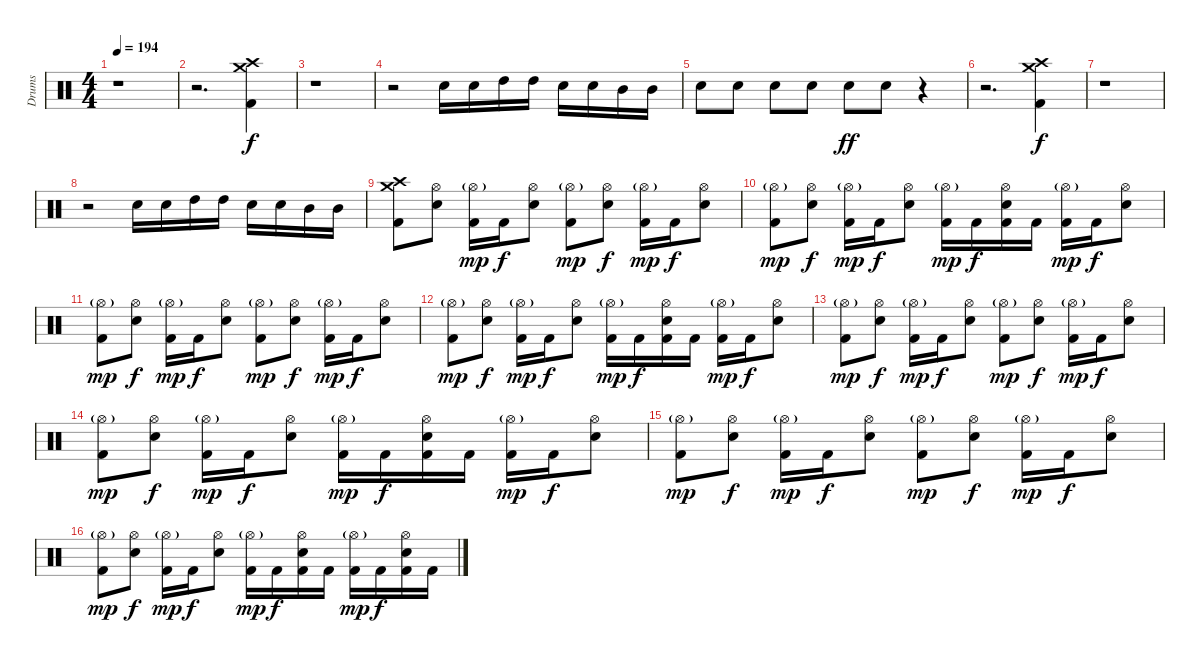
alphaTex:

\track ("Drums" "Drums") {instrument percussion}
\staff {score}
\articulation defaults
\ts (4 4)
\tempo 194
\clef neutral
\ks c
r.1{dy f} |
r.2{d} ("Crash high (hit)" "Crash medium (hit)" "Kick (hit) 2").4 |
r.1 |
r.2 "Electric Snare (hit)".16 "Electric Snare (hit)".16 "High Tom (hit)".16 "High Tom (hit)".16 "Electric Snare (hit)".16 "Electric Snare (hit)".16 "Mid Tom (hit)".16 "Mid Tom (hit)".16 |
"Electric Snare (hit)".8 "Electric Snare (hit)".8 "Electric Snare (hit)".8 "Electric Snare (hit)".8 "Electric Snare (hit)".8{dy ff} "Electric Snare (hit)".8 r.4 |
r.2{d} ("Crash high (hit)" "Crash medium (hit)" "Kick (hit) 2").4{dy f} |
r.1 |
r.2 "Electric Snare (hit)".16 "Electric Snare (hit)".16 "High Tom (hit)".16 "High Tom (hit)".16 "Electric Snare (hit)".16 "Electric Snare (hit)".16 "Mid Tom (hit)".16 "Mid Tom (hit)".16 |
("Crash high (hit)" "Crash medium (hit)" "Kick (hit) 2").8 ("Hi-Hat (open)" "Electric Snare (hit)").8 ("Hi-Hat (open)"{g} "Kick (hit) 2").16{dy mp} "Kick (hit) 2".16{dy f} ("Hi-Hat (open)" "Electric Snare (hit)").8 ("Hi-Hat (open)"{g} "Kick (hit) 2").8{dy mp} ("Hi-Hat (open)" "Electric Snare (hit)").8{dy f} ("Hi-Hat (open)"{g} "Kick (hit) 2").16{dy mp} "Kick (hit) 2".16{dy f} ("Hi-Hat (open)" "Electric Snare (hit)").8 |
("Hi-Hat (open)"{g} "Kick (hit) 2").8{dy mp} ("Hi-Hat (open)" "Electric Snare (hit)").8{dy f} ("Hi-Hat (open)"{g} "Kick (hit) 2").16{dy mp} "Kick (hit) 2".16{dy f} ("Hi-Hat (open)" "Electric Snare (hit)").8 ("Hi-Hat (open)"{g} "Kick (hit) 2").16{dy mp} "Kick (hit) 2".16{dy f} ("Hi-Hat (open)" "Electric Snare (hit)" "Kick (hit) 2").16 "Kick (hit) 2".16 ("Hi-Hat (open)"{g} "Kick (hit) 2").16{dy mp} "Kick (hit) 2".16{dy f} ("Hi-Hat (open)" "Electric Snare (hit)").8 |
("Hi-Hat (open)"{g} "Kick (hit) 2").8{dy mp} ("Hi-Hat (open)" "Electric Snare (hit)").8{dy f} ("Hi-Hat (open)"{g} "Kick (hit) 2").16{dy mp} "Kick (hit) 2".16{dy f} ("Hi-Hat (open)" "Electric Snare (hit)").8 ("Hi-Hat (open)"{g} "Kick (hit) 2").8{dy mp} ("Hi-Hat (open)" "Electric Snare (hit)").8{dy f} ("Hi-Hat (open)"{g} "Kick (hit) 2").16{dy mp} "Kick (hit) 2".16{dy f} ("Hi-Hat (open)" "Electric Snare (hit)").8 |
("Hi-Hat (open)"{g} "Kick (hit) 2").8{dy mp} ("Hi-Hat (open)" "Electric Snare (hit)").8{dy f} ("Hi-Hat (open)"{g} "Kick (hit) 2").16{dy mp} "Kick (hit) 2".16{dy f} ("Hi-Hat (open)" "Electric Snare (hit)").8 ("Hi-Hat (open)"{g} "Kick (hit) 2").16{dy mp} "Kick (hit) 2".16{dy f} ("Hi-Hat (open)" "Electric Snare (hit)" "Kick (hit) 2").16 "Kick (hit) 2".16 ("Hi-Hat (open)"{g} "Kick (hit) 2").16{dy mp} "Kick (hit) 2".16{dy f} ("Hi-Hat (open)" "Electric Snare (hit)").8 |
("Hi-Hat (open)"{g} "Kick (hit) 2").8{dy mp} ("Hi-Hat (open)" "Electric Snare (hit)").8{dy f} ("Hi-Hat (open)"{g} "Kick (hit) 2").16{dy mp} "Kick (hit) 2".16{dy f} ("Hi-Hat (open)" "Electric Snare (hit)").8 ("Hi-Hat (open)"{g} "Kick (hit) 2").8{dy mp} ("Hi-Hat (open)" "Electric Snare (hit)").8{dy f} ("Hi-Hat (open)"{g} "Kick (hit) 2").16{dy mp} "Kick (hit) 2".16{dy f} ("Hi-Hat (open)" "Electric Snare (hit)").8 |
("Hi-Hat (open)"{g} "Kick (hit) 2").8{dy mp} ("Hi-Hat (open)" "Electric Snare (hit)").8{dy f} ("Hi-Hat (open)"{g} "Kick (hit) 2").16{dy mp} "Kick (hit) 2".16{dy f} ("Hi-Hat (open)" "Electric Snare (hit)").8 ("Hi-Hat (open)"{g} "Kick (hit) 2").16{dy mp} "Kick (hit) 2".16{dy f} ("Hi-Hat (open)" "Electric Snare (hit)" "Kick (hit) 2").16 "Kick (hit) 2".16 ("Hi-Hat (open)"{g} "Kick (hit) 2").16{dy mp} "Kick (hit) 2".16{dy f} ("Hi-Hat (open)" "Electric Snare (hit)").8 |
("Hi-Hat (open)"{g} "Kick (hit) 2").8{dy mp} ("Hi-Hat (open)" "Electric Snare (hit)").8{dy f} ("Hi-Hat (open)"{g} "Kick (hit) 2").16{dy mp} "Kick (hit) 2".16{dy f} ("Hi-Hat (open)" "Electric Snare (hit)").8 ("Hi-Hat (open)"{g} "Kick (hit) 2").8{dy mp} ("Hi-Hat (open)" "Electric Snare (hit)").8{dy f} ("Hi-Hat (open)"{g} "Kick (hit) 2").16{dy mp} "Kick (hit) 2".16{dy f} ("Hi-Hat (open)" "Electric Snare (hit)").8 |
("Hi-Hat (open)"{g} "Kick (hit) 2").8{dy mp} ("Hi-Hat (open)" "Electric Snare (hit)").8{dy f} ("Hi-Hat (open)"{g} "Kick (hit) 2").16{dy mp} "Kick (hit) 2".16{dy f} ("Hi-Hat (open)" "Electric Snare (hit)").8 ("Hi-Hat (open)"{g} "Kick (hit) 2").16{dy mp} "Kick (hit) 2".16{dy f} ("Hi-Hat (open)" "Electric Snare (hit)" "Kick (hit) 2").16 "Kick (hit) 2".16 ("Hi-Hat (open)"{g} "Kick (hit) 2").16{dy mp} "Kick (hit) 2".16{dy f} ("Hi-Hat (open)" "Electric Snare (hit)" "Kick (hit) 2").16 "Kick (hit) 2".16
